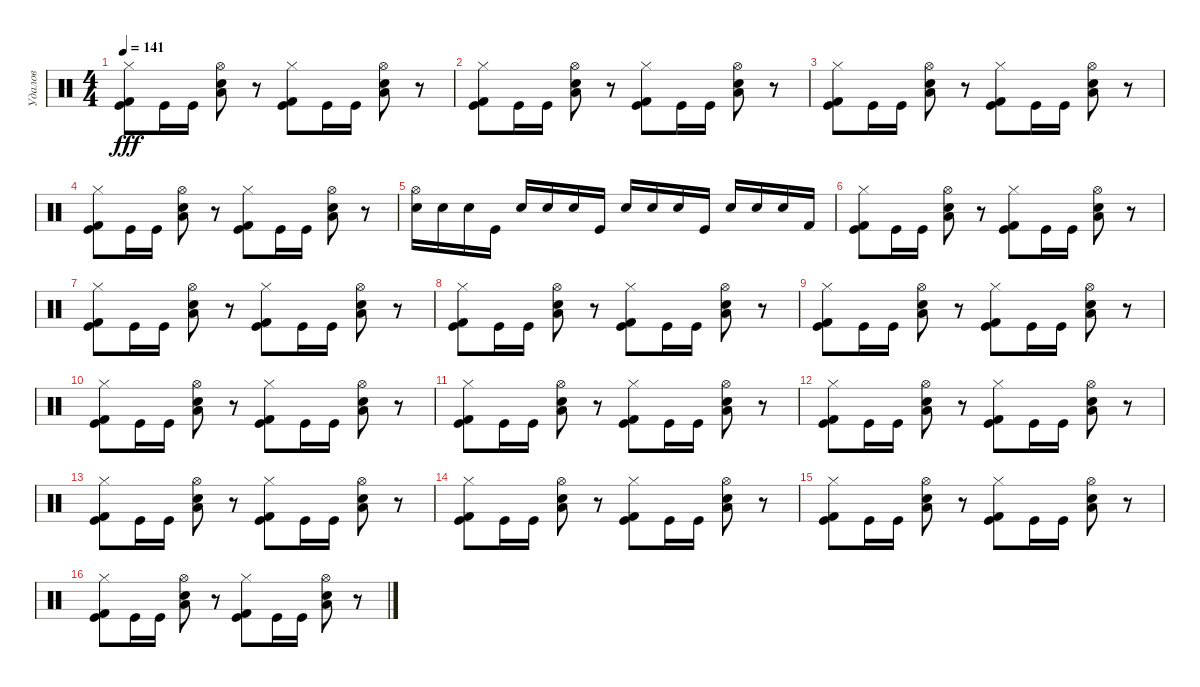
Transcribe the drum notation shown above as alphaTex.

\track ("Удалов" "Удалов") {instrument percussion}
\staff {score}
\articulation defaults
\ts (4 4)
\tempo 141
\clef neutral
\ks c
("Hi-Hat (closed)" "Kick (hit)" "Kick (hit) 2").8{dy fff} "Kick (hit)".16 "Kick (hit)".16 ("Hi-Hat (open)" "Low Tom (hit)" "Snare (hit) 2").8 r.8 ("Hi-Hat (closed)" "Kick (hit)" "Kick (hit) 2").8 "Kick (hit)".16 "Kick (hit)".16 ("Hi-Hat (open)" "Low Tom (hit)" "Snare (hit) 2").8 r.8 |
("Hi-Hat (closed)" "Kick (hit)" "Kick (hit) 2").8 "Kick (hit)".16 "Kick (hit)".16 ("Hi-Hat (open)" "Low Tom (hit)" "Snare (hit) 2").8 r.8 ("Hi-Hat (closed)" "Kick (hit)" "Kick (hit) 2").8 "Kick (hit)".16 "Kick (hit)".16 ("Hi-Hat (open)" "Low Tom (hit)" "Snare (hit) 2").8 r.8 |
("Hi-Hat (closed)" "Kick (hit)" "Kick (hit) 2").8 "Kick (hit)".16 "Kick (hit)".16 ("Hi-Hat (open)" "Low Tom (hit)" "Snare (hit) 2").8 r.8 ("Hi-Hat (closed)" "Kick (hit)" "Kick (hit) 2").8 "Kick (hit)".16 "Kick (hit)".16 ("Hi-Hat (open)" "Low Tom (hit)" "Snare (hit) 2").8 r.8 |
("Hi-Hat (closed)" "Kick (hit)" "Kick (hit) 2").8 "Kick (hit)".16 "Kick (hit)".16 ("Hi-Hat (open)" "Low Tom (hit)" "Snare (hit) 2").8 r.8 ("Hi-Hat (closed)" "Kick (hit)" "Kick (hit) 2").8 "Kick (hit)".16 "Kick (hit)".16 ("Hi-Hat (open)" "Low Tom (hit)" "Snare (hit) 2").8 r.8 |
("Hi-Hat (open)" "Snare (hit) 2").16 "Snare (hit) 2".16 "Snare (hit) 2".16 "Kick (hit)".16 "Snare (hit) 2".16 "Snare (hit) 2".16 "Snare (hit) 2".16 "Kick (hit)".16 "Snare (hit) 2".16 "Snare (hit) 2".16 "Snare (hit) 2".16 "Kick (hit)".16 "Snare (hit) 2".16 "Snare (hit) 2".16 "Snare (hit) 2".16 "Kick (hit) 2".16 |
("Hi-Hat (closed)" "Kick (hit)" "Kick (hit) 2").8 "Kick (hit)".16 "Kick (hit)".16 ("Hi-Hat (open)" "Low Tom (hit)" "Snare (hit) 2").8 r.8 ("Hi-Hat (closed)" "Kick (hit)" "Kick (hit) 2").8 "Kick (hit)".16 "Kick (hit)".16 ("Hi-Hat (open)" "Low Tom (hit)" "Snare (hit) 2").8 r.8 |
("Hi-Hat (closed)" "Kick (hit)" "Kick (hit) 2").8 "Kick (hit)".16 "Kick (hit)".16 ("Hi-Hat (open)" "Low Tom (hit)" "Snare (hit) 2").8 r.8 ("Hi-Hat (closed)" "Kick (hit)" "Kick (hit) 2").8 "Kick (hit)".16 "Kick (hit)".16 ("Hi-Hat (open)" "Low Tom (hit)" "Snare (hit) 2").8 r.8 |
("Hi-Hat (closed)" "Kick (hit)" "Kick (hit) 2").8 "Kick (hit)".16 "Kick (hit)".16 ("Hi-Hat (open)" "Low Tom (hit)" "Snare (hit) 2").8 r.8 ("Hi-Hat (closed)" "Kick (hit)" "Kick (hit) 2").8 "Kick (hit)".16 "Kick (hit)".16 ("Hi-Hat (open)" "Low Tom (hit)" "Snare (hit) 2").8 r.8 |
("Hi-Hat (closed)" "Kick (hit)" "Kick (hit) 2").8 "Kick (hit)".16 "Kick (hit)".16 ("Hi-Hat (open)" "Low Tom (hit)" "Snare (hit) 2").8 r.8 ("Hi-Hat (closed)" "Kick (hit)" "Kick (hit) 2").8 "Kick (hit)".16 "Kick (hit)".16 ("Hi-Hat (open)" "Low Tom (hit)" "Snare (hit) 2").8 r.8 |
("Hi-Hat (closed)" "Kick (hit)" "Kick (hit) 2").8 "Kick (hit)".16 "Kick (hit)".16 ("Hi-Hat (open)" "Low Tom (hit)" "Snare (hit) 2").8 r.8 ("Hi-Hat (closed)" "Kick (hit)" "Kick (hit) 2").8 "Kick (hit)".16 "Kick (hit)".16 ("Hi-Hat (open)" "Low Tom (hit)" "Snare (hit) 2").8 r.8 |
("Hi-Hat (closed)" "Kick (hit)" "Kick (hit) 2").8 "Kick (hit)".16 "Kick (hit)".16 ("Hi-Hat (open)" "Low Tom (hit)" "Snare (hit) 2").8 r.8 ("Hi-Hat (closed)" "Kick (hit)" "Kick (hit) 2").8 "Kick (hit)".16 "Kick (hit)".16 ("Hi-Hat (open)" "Low Tom (hit)" "Snare (hit) 2").8 r.8 |
("Hi-Hat (closed)" "Kick (hit)" "Kick (hit) 2").8 "Kick (hit)".16 "Kick (hit)".16 ("Hi-Hat (open)" "Low Tom (hit)" "Snare (hit) 2").8 r.8 ("Hi-Hat (closed)" "Kick (hit)" "Kick (hit) 2").8 "Kick (hit)".16 "Kick (hit)".16 ("Hi-Hat (open)" "Low Tom (hit)" "Snare (hit) 2").8 r.8 |
("Hi-Hat (closed)" "Kick (hit)" "Kick (hit) 2").8 "Kick (hit)".16 "Kick (hit)".16 ("Hi-Hat (open)" "Low Tom (hit)" "Snare (hit) 2").8 r.8 ("Hi-Hat (closed)" "Kick (hit)" "Kick (hit) 2").8 "Kick (hit)".16 "Kick (hit)".16 ("Hi-Hat (open)" "Low Tom (hit)" "Snare (hit) 2").8 r.8 |
("Hi-Hat (closed)" "Kick (hit)" "Kick (hit) 2").8 "Kick (hit)".16 "Kick (hit)".16 ("Hi-Hat (open)" "Low Tom (hit)" "Snare (hit) 2").8 r.8 ("Hi-Hat (closed)" "Kick (hit)" "Kick (hit) 2").8 "Kick (hit)".16 "Kick (hit)".16 ("Hi-Hat (open)" "Low Tom (hit)" "Snare (hit) 2").8 r.8 |
("Hi-Hat (closed)" "Kick (hit)" "Kick (hit) 2").8 "Kick (hit)".16 "Kick (hit)".16 ("Hi-Hat (open)" "Low Tom (hit)" "Snare (hit) 2").8 r.8 ("Hi-Hat (closed)" "Kick (hit)" "Kick (hit) 2").8 "Kick (hit)".16 "Kick (hit)".16 ("Hi-Hat (open)" "Low Tom (hit)" "Snare (hit) 2").8 r.8 |
("Hi-Hat (closed)" "Kick (hit)" "Kick (hit) 2").8 "Kick (hit)".16 "Kick (hit)".16 ("Hi-Hat (open)" "Low Tom (hit)" "Snare (hit) 2").8 r.8 ("Hi-Hat (closed)" "Kick (hit)" "Kick (hit) 2").8 "Kick (hit)".16 "Kick (hit)".16 ("Hi-Hat (open)" "Low Tom (hit)" "Snare (hit) 2").8 r.8
